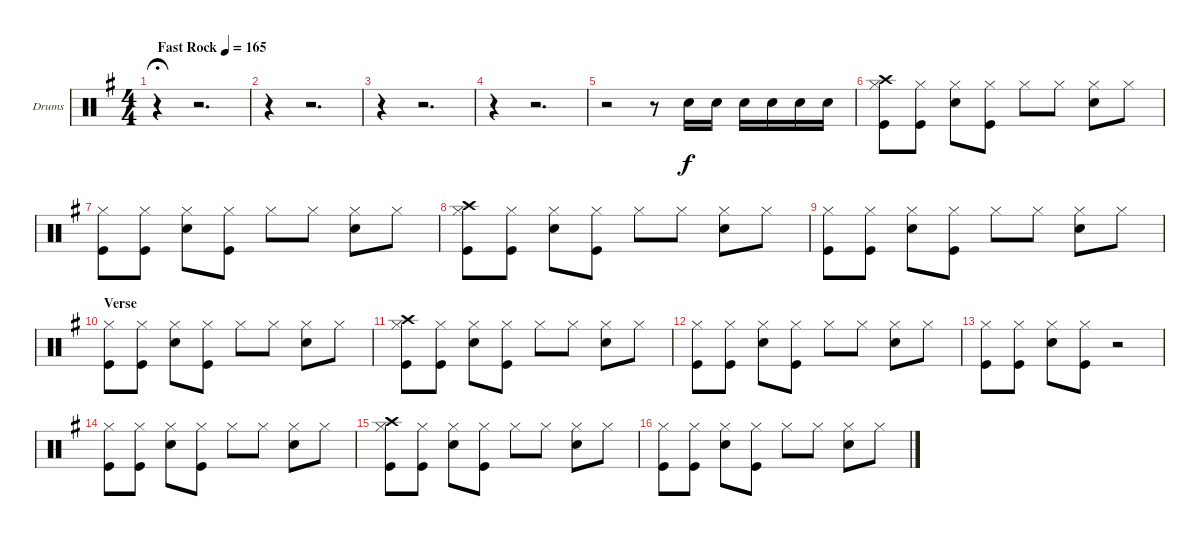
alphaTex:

\defaultSystemsLayout 4
\bracketExtendMode groupsimilarinstruments
\firstSystemTrackNameOrientation horizontal
\otherSystemsTrackNameOrientation horizontal
\track ("Drumkit" "Drums") {instrument percussion}
\staff {score}
\articulation defaults
\ts (4 4)
\tempo (165 "Fast Rock")
\clef neutral
\scale
1.07314
\ks g
r.4{dy f fermata (medium 0.5)} r.2{d} |
\scale
0.92686 r.4 r.2{d} |
\scale
1.04288 r.4 r.2{d} |
\scale
0.957125 r.4 r.2{d} |
\scale
1.04288 r.2 r.8 "Snare (hit) 2".16 "Snare (hit) 2".16 "Snare (hit) 2".16 "Snare (hit) 2".16 "Snare (hit) 2".16 "Snare (hit) 2".16 |
\scale
0.957125 ("Crash high (hit)" "Hi-Hat (closed)" "Kick (hit)").8 ("Hi-Hat (closed)" "Kick (hit)").8 ("Hi-Hat (closed)" "Snare (hit) 2").8 ("Hi-Hat (closed)" "Kick (hit)").8 "Hi-Hat (closed)".8 "Hi-Hat (closed)".8 ("Hi-Hat (closed)" "Snare (hit) 2").8 "Hi-Hat (closed)".8 |
\scale
1.04288 ("Hi-Hat (closed)" "Kick (hit)").8 ("Hi-Hat (closed)" "Kick (hit)").8 ("Hi-Hat (closed)" "Snare (hit) 2").8 ("Hi-Hat (closed)" "Kick (hit)").8 "Hi-Hat (closed)".8 "Hi-Hat (closed)".8 ("Hi-Hat (closed)" "Snare (hit) 2").8 "Hi-Hat (closed)".8 |
\scale
0.957125 ("Crash high (hit)" "Hi-Hat (closed)" "Kick (hit)").8 ("Hi-Hat (closed)" "Kick (hit)").8 ("Hi-Hat (closed)" "Snare (hit) 2").8 ("Hi-Hat (closed)" "Kick (hit)").8 "Hi-Hat (closed)".8 "Hi-Hat (closed)".8 ("Hi-Hat (closed)" "Snare (hit) 2").8 "Hi-Hat (closed)".8 |
\scale
1.04288 ("Hi-Hat (closed)" "Kick (hit)").8 ("Hi-Hat (closed)" "Kick (hit)").8 ("Hi-Hat (closed)" "Snare (hit) 2").8 ("Hi-Hat (closed)" "Kick (hit)").8 "Hi-Hat (closed)".8 "Hi-Hat (closed)".8 ("Hi-Hat (closed)" "Snare (hit) 2").8 "Hi-Hat (closed)".8 |
\section ("" "Verse")
\scale
0.957125 ("Hi-Hat (closed)" "Kick (hit)").8 ("Hi-Hat (closed)" "Kick (hit)").8 ("Hi-Hat (closed)" "Snare (hit) 2").8 ("Hi-Hat (closed)" "Kick (hit)").8 "Hi-Hat (closed)".8 "Hi-Hat (closed)".8 ("Hi-Hat (closed)" "Snare (hit) 2").8 "Hi-Hat (closed)".8 |
\scale
1.04288 ("Crash high (hit)" "Hi-Hat (closed)" "Kick (hit)").8 ("Hi-Hat (closed)" "Kick (hit)").8 ("Hi-Hat (closed)" "Snare (hit) 2").8 ("Hi-Hat (closed)" "Kick (hit)").8 "Hi-Hat (closed)".8 "Hi-Hat (closed)".8 ("Hi-Hat (closed)" "Snare (hit) 2").8 "Hi-Hat (closed)".8 |
\scale
0.957125 ("Hi-Hat (closed)" "Kick (hit)").8 ("Hi-Hat (closed)" "Kick (hit)").8 ("Hi-Hat (closed)" "Snare (hit) 2").8 ("Hi-Hat (closed)" "Kick (hit)").8 "Hi-Hat (closed)".8 "Hi-Hat (closed)".8 ("Hi-Hat (closed)" "Snare (hit) 2").8 "Hi-Hat (closed)".8 |
\scale
1.04288 ("Hi-Hat (closed)" "Kick (hit)").8 ("Hi-Hat (closed)" "Kick (hit)").8 ("Hi-Hat (closed)" "Snare (hit) 2").8 ("Hi-Hat (closed)" "Kick (hit)").8 r.2 |
\scale
0.957125 ("Hi-Hat (closed)" "Kick (hit)").8 ("Hi-Hat (closed)" "Kick (hit)").8 ("Hi-Hat (closed)" "Snare (hit) 2").8 ("Hi-Hat (closed)" "Kick (hit)").8 "Hi-Hat (closed)".8 "Hi-Hat (closed)".8 ("Hi-Hat (closed)" "Snare (hit) 2").8 "Hi-Hat (closed)".8 |
\scale
1.04288 ("Crash high (hit)" "Hi-Hat (closed)" "Kick (hit)").8 ("Hi-Hat (closed)" "Kick (hit)").8 ("Hi-Hat (closed)" "Snare (hit) 2").8 ("Hi-Hat (closed)" "Kick (hit)").8 "Hi-Hat (closed)".8 "Hi-Hat (closed)".8 ("Hi-Hat (closed)" "Snare (hit) 2").8 "Hi-Hat (closed)".8 |
\scale
0.957125 ("Hi-Hat (closed)" "Kick (hit)").8 ("Hi-Hat (closed)" "Kick (hit)").8 ("Hi-Hat (closed)" "Snare (hit) 2").8 ("Hi-Hat (closed)" "Kick (hit)").8 "Hi-Hat (closed)".8 "Hi-Hat (closed)".8 ("Hi-Hat (closed)" "Snare (hit) 2").8 "Hi-Hat (closed)".8
